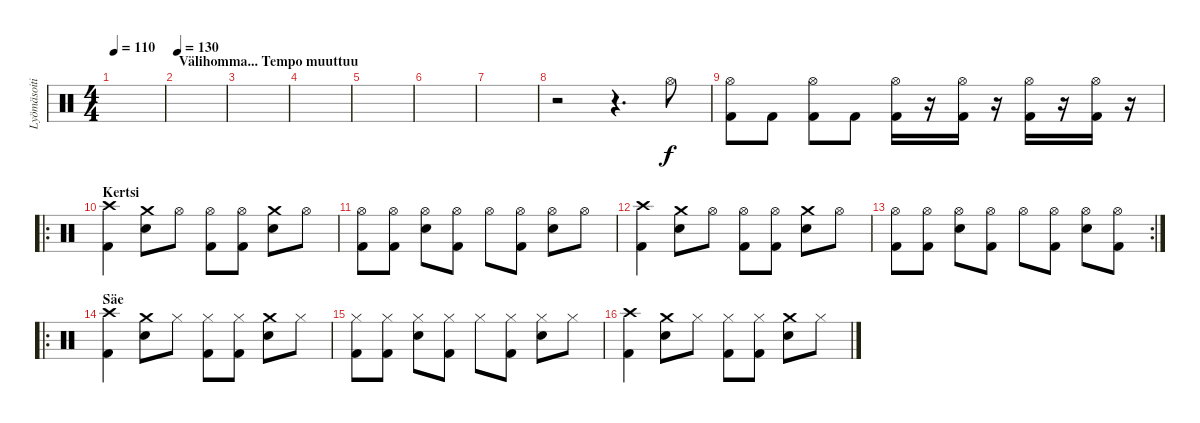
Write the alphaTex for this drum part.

\track ("Lyömäsoitin" "Lyömäsoiti") {instrument percussion}
\staff {score}
\articulation defaults
\ts (4 4)
\tempo 110
\clef neutral
\ks c
|
\section ("" "Välihomma... Tempo muuttuu")
\tempo 130
|
|
|
|
|
|
r.2 r.4{d} "Hi-Hat (open)".8 |
("Hi-Hat (open)" "Kick (hit) 2").8 "Kick (hit) 2".8 ("Hi-Hat (open)" "Kick (hit) 2").8 "Kick (hit) 2".8 ("Hi-Hat (open)" "Kick (hit) 2").16 r.16 ("Hi-Hat (open)" "Kick (hit) 2").16 r.16 ("Hi-Hat (open)" "Kick (hit) 2").16 r.16 ("Hi-Hat (open)" "Kick (hit) 2").16 r.16 |
\ro
\section ("" "Kertsi")
("Kick (hit) 2" "Crash high (hit)").4 ("Snare (hit) 2" "Crash medium (hit)").8 "Hi-Hat (open)".8 ("Kick (hit) 2" "Hi-Hat (open)").8 ("Kick (hit) 2" "Hi-Hat (open)").8 ("Snare (hit) 2" "Crash medium (hit)").8 "Hi-Hat (open)".8 |
("Kick (hit) 2" "Hi-Hat (open)").8 ("Kick (hit) 2" "Hi-Hat (open)").8 ("Snare (hit) 2" "Hi-Hat (open)").8 ("Hi-Hat (open)" "Kick (hit) 2").8 "Hi-Hat (open)".8 ("Kick (hit) 2" "Hi-Hat (open)").8 ("Snare (hit) 2" "Hi-Hat (open)").8 "Hi-Hat (open)".8 |
("Kick (hit) 2" "Crash high (hit)").4 ("Snare (hit) 2" "Crash medium (hit)").8 "Hi-Hat (open)".8 ("Kick (hit) 2" "Hi-Hat (open)").8 ("Kick (hit) 2" "Hi-Hat (open)").8 ("Snare (hit) 2" "Crash medium (hit)").8 "Hi-Hat (open)".8 |
\rc 2
("Kick (hit) 2" "Hi-Hat (open)").8 ("Kick (hit) 2" "Hi-Hat (open)").8 ("Snare (hit) 2" "Hi-Hat (open)").8 ("Hi-Hat (open)" "Kick (hit) 2").8 "Hi-Hat (open)".8 ("Kick (hit) 2" "Hi-Hat (open)").8 ("Snare (hit) 2" "Hi-Hat (open)").8 ("Hi-Hat (open)" "Kick (hit) 2").8 |
\ro
\section ("" "Säe")
("Kick (hit) 2" "Crash high (hit)").4 ("Snare (hit) 2" "Crash medium (hit)").8 "Hi-Hat (closed)".8 ("Kick (hit) 2" "Hi-Hat (closed)").8 ("Kick (hit) 2" "Hi-Hat (closed)").8 ("Snare (hit) 2" "Crash medium (hit)").8 "Hi-Hat (closed)".8 |
("Kick (hit) 2" "Hi-Hat (closed)").8 ("Kick (hit) 2" "Hi-Hat (closed)").8 ("Snare (hit) 2" "Hi-Hat (closed)").8 ("Hi-Hat (closed)" "Kick (hit) 2").8 "Hi-Hat (closed)".8 ("Kick (hit) 2" "Hi-Hat (closed)").8 ("Snare (hit) 2" "Hi-Hat (closed)").8 "Hi-Hat (closed)".8 |
("Kick (hit) 2" "Crash high (hit)").4 ("Snare (hit) 2" "Crash medium (hit)").8 "Hi-Hat (closed)".8 ("Kick (hit) 2" "Hi-Hat (closed)").8 ("Kick (hit) 2" "Hi-Hat (closed)").8 ("Snare (hit) 2" "Crash medium (hit)").8 "Hi-Hat (closed)".8
